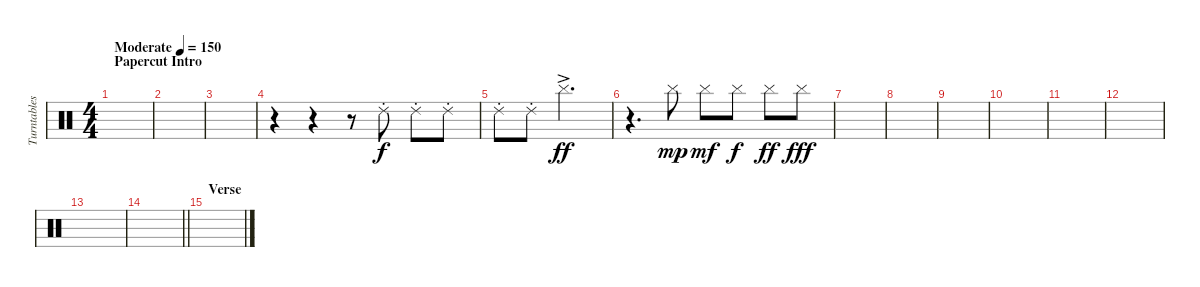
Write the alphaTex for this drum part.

\track ("Turntables - Joe Hahn" "Turntables") {instrument percussion}
\staff {score}
\articulation defaults
\ts (4 4)
\section ("" "Papercut Intro")
\tempo (150 "Moderate")
\clef neutral
\ks c
|
|
|
r.4 r.4 r.8 "Ride (choke) 2".8 "Ride (choke) 2".8 "Ride (choke) 2".8 |
"Ride (choke) 2".8 "Ride (choke) 2".8 "Cymbal (hit)"{ac}.2{d dy ff} |
r.4{d} "Cymbal (hit)".8{dy mp} "Cymbal (hit)".8{dy mf} "Cymbal (hit)".8{dy f} "Cymbal (hit)".8{dy ff} "Cymbal (hit)".8{dy fff} |
|
|
|
|
|
|
|
\barLineRight lightlight
|
\section ("" "Verse")
